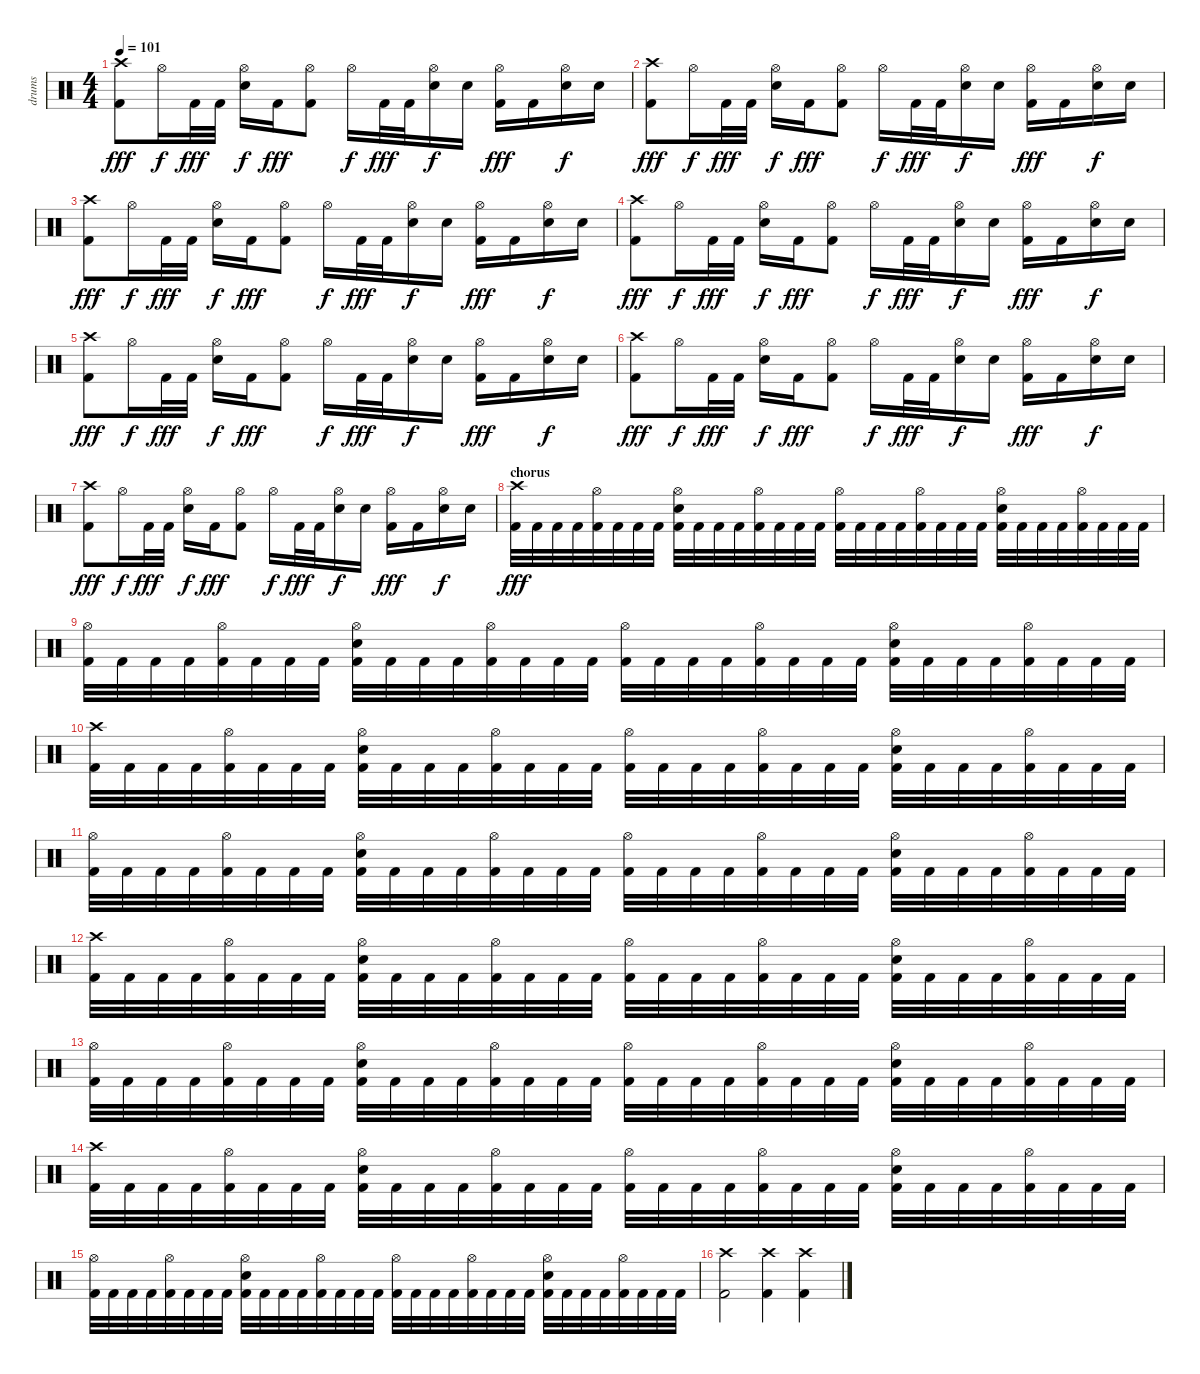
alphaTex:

\track ("drums" "drums") {instrument percussion}
\staff {score}
\articulation defaults
\ts (4 4)
\tempo 101
\clef neutral
\ks c
("Crash high (hit)" "Kick (hit) 2").8{dy fff} "Hi-Hat (open)".16{dy f} "Kick (hit) 2".32{dy fff} "Kick (hit) 2".32 ("Hi-Hat (open)" "Snare (hit) 2").16{dy f} "Kick (hit) 2".16{dy fff} ("Hi-Hat (open)" "Kick (hit) 2").8 "Hi-Hat (open)".16{dy f} "Kick (hit) 2".32{dy fff} "Kick (hit) 2".32 ("Hi-Hat (open)" "Snare (hit) 2").16{dy f} "Snare (hit) 2".16 ("Hi-Hat (open)" "Kick (hit) 2").16{dy fff} "Kick (hit) 2".16 ("Hi-Hat (open)" "Snare (hit) 2").16{dy f} "Snare (hit) 2".16 |
("Crash high (hit)" "Kick (hit) 2").8{dy fff} "Hi-Hat (open)".16{dy f} "Kick (hit) 2".32{dy fff} "Kick (hit) 2".32 ("Hi-Hat (open)" "Snare (hit) 2").16{dy f} "Kick (hit) 2".16{dy fff} ("Hi-Hat (open)" "Kick (hit) 2").8 "Hi-Hat (open)".16{dy f} "Kick (hit) 2".32{dy fff} "Kick (hit) 2".32 ("Hi-Hat (open)" "Snare (hit) 2").16{dy f} "Snare (hit) 2".16 ("Hi-Hat (open)" "Kick (hit) 2").16{dy fff} "Kick (hit) 2".16 ("Hi-Hat (open)" "Snare (hit) 2").16{dy f} "Snare (hit) 2".16 |
("Crash high (hit)" "Kick (hit) 2").8{dy fff} "Hi-Hat (open)".16{dy f} "Kick (hit) 2".32{dy fff} "Kick (hit) 2".32 ("Hi-Hat (open)" "Snare (hit) 2").16{dy f} "Kick (hit) 2".16{dy fff} ("Hi-Hat (open)" "Kick (hit) 2").8 "Hi-Hat (open)".16{dy f} "Kick (hit) 2".32{dy fff} "Kick (hit) 2".32 ("Hi-Hat (open)" "Snare (hit) 2").16{dy f} "Snare (hit) 2".16 ("Hi-Hat (open)" "Kick (hit) 2").16{dy fff} "Kick (hit) 2".16 ("Hi-Hat (open)" "Snare (hit) 2").16{dy f} "Snare (hit) 2".16 |
("Crash high (hit)" "Kick (hit) 2").8{dy fff} "Hi-Hat (open)".16{dy f} "Kick (hit) 2".32{dy fff} "Kick (hit) 2".32 ("Hi-Hat (open)" "Snare (hit) 2").16{dy f} "Kick (hit) 2".16{dy fff} ("Hi-Hat (open)" "Kick (hit) 2").8 "Hi-Hat (open)".16{dy f} "Kick (hit) 2".32{dy fff} "Kick (hit) 2".32 ("Hi-Hat (open)" "Snare (hit) 2").16{dy f} "Snare (hit) 2".16 ("Hi-Hat (open)" "Kick (hit) 2").16{dy fff} "Kick (hit) 2".16 ("Hi-Hat (open)" "Snare (hit) 2").16{dy f} "Snare (hit) 2".16 |
("Crash high (hit)" "Kick (hit) 2").8{dy fff} "Hi-Hat (open)".16{dy f} "Kick (hit) 2".32{dy fff} "Kick (hit) 2".32 ("Hi-Hat (open)" "Snare (hit) 2").16{dy f} "Kick (hit) 2".16{dy fff} ("Hi-Hat (open)" "Kick (hit) 2").8 "Hi-Hat (open)".16{dy f} "Kick (hit) 2".32{dy fff} "Kick (hit) 2".32 ("Hi-Hat (open)" "Snare (hit) 2").16{dy f} "Snare (hit) 2".16 ("Hi-Hat (open)" "Kick (hit) 2").16{dy fff} "Kick (hit) 2".16 ("Hi-Hat (open)" "Snare (hit) 2").16{dy f} "Snare (hit) 2".16 |
("Crash high (hit)" "Kick (hit) 2").8{dy fff} "Hi-Hat (open)".16{dy f} "Kick (hit) 2".32{dy fff} "Kick (hit) 2".32 ("Hi-Hat (open)" "Snare (hit) 2").16{dy f} "Kick (hit) 2".16{dy fff} ("Hi-Hat (open)" "Kick (hit) 2").8 "Hi-Hat (open)".16{dy f} "Kick (hit) 2".32{dy fff} "Kick (hit) 2".32 ("Hi-Hat (open)" "Snare (hit) 2").16{dy f} "Snare (hit) 2".16 ("Hi-Hat (open)" "Kick (hit) 2").16{dy fff} "Kick (hit) 2".16 ("Hi-Hat (open)" "Snare (hit) 2").16{dy f} "Snare (hit) 2".16 |
("Crash high (hit)" "Kick (hit) 2").8{dy fff} "Hi-Hat (open)".16{dy f} "Kick (hit) 2".32{dy fff} "Kick (hit) 2".32 ("Hi-Hat (open)" "Snare (hit) 2").16{dy f} "Kick (hit) 2".16{dy fff} ("Hi-Hat (open)" "Kick (hit) 2").8 "Hi-Hat (open)".16{dy f} "Kick (hit) 2".32{dy fff} "Kick (hit) 2".32 ("Hi-Hat (open)" "Snare (hit) 2").16{dy f} "Snare (hit) 2".16 ("Hi-Hat (open)" "Kick (hit) 2").16{dy fff} "Kick (hit) 2".16 ("Hi-Hat (open)" "Snare (hit) 2").16{dy f} "Snare (hit) 2".16 |
\section ("" "chorus")
("Crash high (hit)" "Kick (hit) 2").32{dy fff} "Kick (hit) 2".32 "Kick (hit) 2".32 "Kick (hit) 2".32 ("Hi-Hat (open)" "Kick (hit) 2").32 "Kick (hit) 2".32 "Kick (hit) 2".32 "Kick (hit) 2".32 ("Hi-Hat (open)" "Snare (hit) 2" "Kick (hit) 2").32 "Kick (hit) 2".32 "Kick (hit) 2".32 "Kick (hit) 2".32 ("Hi-Hat (open)" "Kick (hit) 2").32 "Kick (hit) 2".32 "Kick (hit) 2".32 "Kick (hit) 2".32 ("Hi-Hat (open)" "Kick (hit) 2").32 "Kick (hit) 2".32 "Kick (hit) 2".32 "Kick (hit) 2".32 ("Hi-Hat (open)" "Kick (hit) 2").32 "Kick (hit) 2".32 "Kick (hit) 2".32 "Kick (hit) 2".32 ("Hi-Hat (open)" "Snare (hit) 2" "Kick (hit) 2").32 "Kick (hit) 2".32 "Kick (hit) 2".32 "Kick (hit) 2".32 ("Hi-Hat (open)" "Kick (hit) 2").32 "Kick (hit) 2".32 "Kick (hit) 2".32 "Kick (hit) 2".32 |
("Hi-Hat (open)" "Kick (hit) 2").32 "Kick (hit) 2".32 "Kick (hit) 2".32 "Kick (hit) 2".32 ("Hi-Hat (open)" "Kick (hit) 2").32 "Kick (hit) 2".32 "Kick (hit) 2".32 "Kick (hit) 2".32 ("Hi-Hat (open)" "Snare (hit) 2" "Kick (hit) 2").32 "Kick (hit) 2".32 "Kick (hit) 2".32 "Kick (hit) 2".32 ("Hi-Hat (open)" "Kick (hit) 2").32 "Kick (hit) 2".32 "Kick (hit) 2".32 "Kick (hit) 2".32 ("Hi-Hat (open)" "Kick (hit) 2").32 "Kick (hit) 2".32 "Kick (hit) 2".32 "Kick (hit) 2".32 ("Hi-Hat (open)" "Kick (hit) 2").32 "Kick (hit) 2".32 "Kick (hit) 2".32 "Kick (hit) 2".32 ("Hi-Hat (open)" "Snare (hit) 2" "Kick (hit) 2").32 "Kick (hit) 2".32 "Kick (hit) 2".32 "Kick (hit) 2".32 ("Hi-Hat (open)" "Kick (hit) 2").32 "Kick (hit) 2".32 "Kick (hit) 2".32 "Kick (hit) 2".32 |
("Crash high (hit)" "Kick (hit) 2").32 "Kick (hit) 2".32 "Kick (hit) 2".32 "Kick (hit) 2".32 ("Hi-Hat (open)" "Kick (hit) 2").32 "Kick (hit) 2".32 "Kick (hit) 2".32 "Kick (hit) 2".32 ("Hi-Hat (open)" "Snare (hit) 2" "Kick (hit) 2").32 "Kick (hit) 2".32 "Kick (hit) 2".32 "Kick (hit) 2".32 ("Hi-Hat (open)" "Kick (hit) 2").32 "Kick (hit) 2".32 "Kick (hit) 2".32 "Kick (hit) 2".32 ("Hi-Hat (open)" "Kick (hit) 2").32 "Kick (hit) 2".32 "Kick (hit) 2".32 "Kick (hit) 2".32 ("Hi-Hat (open)" "Kick (hit) 2").32 "Kick (hit) 2".32 "Kick (hit) 2".32 "Kick (hit) 2".32 ("Hi-Hat (open)" "Snare (hit) 2" "Kick (hit) 2").32 "Kick (hit) 2".32 "Kick (hit) 2".32 "Kick (hit) 2".32 ("Hi-Hat (open)" "Kick (hit) 2").32 "Kick (hit) 2".32 "Kick (hit) 2".32 "Kick (hit) 2".32 |
("Hi-Hat (open)" "Kick (hit) 2").32 "Kick (hit) 2".32 "Kick (hit) 2".32 "Kick (hit) 2".32 ("Hi-Hat (open)" "Kick (hit) 2").32 "Kick (hit) 2".32 "Kick (hit) 2".32 "Kick (hit) 2".32 ("Hi-Hat (open)" "Snare (hit) 2" "Kick (hit) 2").32 "Kick (hit) 2".32 "Kick (hit) 2".32 "Kick (hit) 2".32 ("Hi-Hat (open)" "Kick (hit) 2").32 "Kick (hit) 2".32 "Kick (hit) 2".32 "Kick (hit) 2".32 ("Hi-Hat (open)" "Kick (hit) 2").32 "Kick (hit) 2".32 "Kick (hit) 2".32 "Kick (hit) 2".32 ("Hi-Hat (open)" "Kick (hit) 2").32 "Kick (hit) 2".32 "Kick (hit) 2".32 "Kick (hit) 2".32 ("Hi-Hat (open)" "Snare (hit) 2" "Kick (hit) 2").32 "Kick (hit) 2".32 "Kick (hit) 2".32 "Kick (hit) 2".32 ("Hi-Hat (open)" "Kick (hit) 2").32 "Kick (hit) 2".32 "Kick (hit) 2".32 "Kick (hit) 2".32 |
("Crash high (hit)" "Kick (hit) 2").32 "Kick (hit) 2".32 "Kick (hit) 2".32 "Kick (hit) 2".32 ("Hi-Hat (open)" "Kick (hit) 2").32 "Kick (hit) 2".32 "Kick (hit) 2".32 "Kick (hit) 2".32 ("Hi-Hat (open)" "Snare (hit) 2" "Kick (hit) 2").32 "Kick (hit) 2".32 "Kick (hit) 2".32 "Kick (hit) 2".32 ("Hi-Hat (open)" "Kick (hit) 2").32 "Kick (hit) 2".32 "Kick (hit) 2".32 "Kick (hit) 2".32 ("Hi-Hat (open)" "Kick (hit) 2").32 "Kick (hit) 2".32 "Kick (hit) 2".32 "Kick (hit) 2".32 ("Hi-Hat (open)" "Kick (hit) 2").32 "Kick (hit) 2".32 "Kick (hit) 2".32 "Kick (hit) 2".32 ("Hi-Hat (open)" "Snare (hit) 2" "Kick (hit) 2").32 "Kick (hit) 2".32 "Kick (hit) 2".32 "Kick (hit) 2".32 ("Hi-Hat (open)" "Kick (hit) 2").32 "Kick (hit) 2".32 "Kick (hit) 2".32 "Kick (hit) 2".32 |
("Hi-Hat (open)" "Kick (hit) 2").32 "Kick (hit) 2".32 "Kick (hit) 2".32 "Kick (hit) 2".32 ("Hi-Hat (open)" "Kick (hit) 2").32 "Kick (hit) 2".32 "Kick (hit) 2".32 "Kick (hit) 2".32 ("Hi-Hat (open)" "Snare (hit) 2" "Kick (hit) 2").32 "Kick (hit) 2".32 "Kick (hit) 2".32 "Kick (hit) 2".32 ("Hi-Hat (open)" "Kick (hit) 2").32 "Kick (hit) 2".32 "Kick (hit) 2".32 "Kick (hit) 2".32 ("Hi-Hat (open)" "Kick (hit) 2").32 "Kick (hit) 2".32 "Kick (hit) 2".32 "Kick (hit) 2".32 ("Hi-Hat (open)" "Kick (hit) 2").32 "Kick (hit) 2".32 "Kick (hit) 2".32 "Kick (hit) 2".32 ("Hi-Hat (open)" "Snare (hit) 2" "Kick (hit) 2").32 "Kick (hit) 2".32 "Kick (hit) 2".32 "Kick (hit) 2".32 ("Hi-Hat (open)" "Kick (hit) 2").32 "Kick (hit) 2".32 "Kick (hit) 2".32 "Kick (hit) 2".32 |
("Crash high (hit)" "Kick (hit) 2").32 "Kick (hit) 2".32 "Kick (hit) 2".32 "Kick (hit) 2".32 ("Hi-Hat (open)" "Kick (hit) 2").32 "Kick (hit) 2".32 "Kick (hit) 2".32 "Kick (hit) 2".32 ("Hi-Hat (open)" "Snare (hit) 2" "Kick (hit) 2").32 "Kick (hit) 2".32 "Kick (hit) 2".32 "Kick (hit) 2".32 ("Hi-Hat (open)" "Kick (hit) 2").32 "Kick (hit) 2".32 "Kick (hit) 2".32 "Kick (hit) 2".32 ("Hi-Hat (open)" "Kick (hit) 2").32 "Kick (hit) 2".32 "Kick (hit) 2".32 "Kick (hit) 2".32 ("Hi-Hat (open)" "Kick (hit) 2").32 "Kick (hit) 2".32 "Kick (hit) 2".32 "Kick (hit) 2".32 ("Hi-Hat (open)" "Snare (hit) 2" "Kick (hit) 2").32 "Kick (hit) 2".32 "Kick (hit) 2".32 "Kick (hit) 2".32 ("Hi-Hat (open)" "Kick (hit) 2").32 "Kick (hit) 2".32 "Kick (hit) 2".32 "Kick (hit) 2".32 |
("Hi-Hat (open)" "Kick (hit) 2").32 "Kick (hit) 2".32 "Kick (hit) 2".32 "Kick (hit) 2".32 ("Hi-Hat (open)" "Kick (hit) 2").32 "Kick (hit) 2".32 "Kick (hit) 2".32 "Kick (hit) 2".32 ("Hi-Hat (open)" "Snare (hit) 2" "Kick (hit) 2").32 "Kick (hit) 2".32 "Kick (hit) 2".32 "Kick (hit) 2".32 ("Hi-Hat (open)" "Kick (hit) 2").32 "Kick (hit) 2".32 "Kick (hit) 2".32 "Kick (hit) 2".32 ("Hi-Hat (open)" "Kick (hit) 2").32 "Kick (hit) 2".32 "Kick (hit) 2".32 "Kick (hit) 2".32 ("Hi-Hat (open)" "Kick (hit) 2").32 "Kick (hit) 2".32 "Kick (hit) 2".32 "Kick (hit) 2".32 ("Hi-Hat (open)" "Snare (hit) 2" "Kick (hit) 2").32 "Kick (hit) 2".32 "Kick (hit) 2".32 "Kick (hit) 2".32 ("Hi-Hat (open)" "Kick (hit) 2").32 "Kick (hit) 2".32 "Kick (hit) 2".32 "Kick (hit) 2".32 |
("Crash high (hit)" "Kick (hit) 2").2 ("Crash high (hit)" "Kick (hit) 2").4 ("Crash high (hit)" "Kick (hit) 2").4
